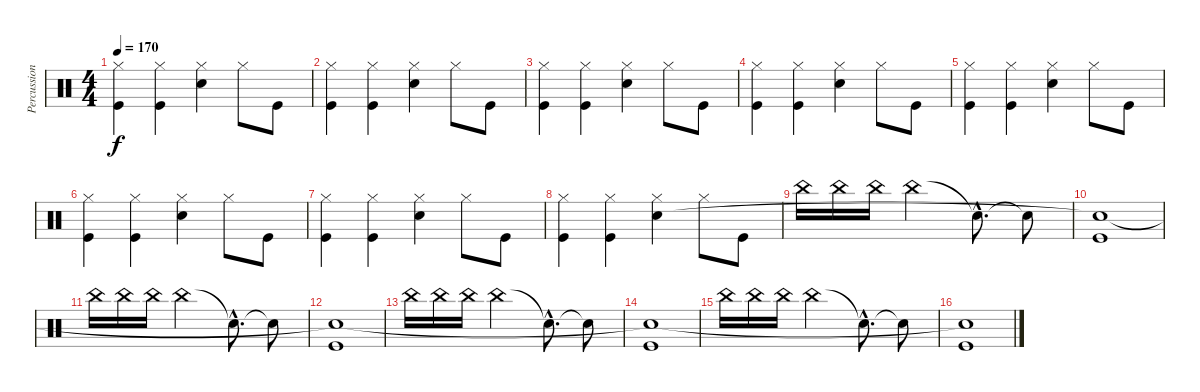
\track ("Percussion" "Percussion") {instrument percussion}
\staff {score}
\articulation defaults
\ts (4 4)
\tempo 170
\clef neutral
\ks c
("Hi-Hat (closed)" "Kick (hit)").4{dy f} ("Hi-Hat (closed)" "Kick (hit)").4 ("Hi-Hat (closed)" "Snare (hit) 2").4 "Hi-Hat (closed)".8 "Kick (hit)".8 |
("Hi-Hat (closed)" "Kick (hit)").4 ("Hi-Hat (closed)" "Kick (hit)").4 ("Hi-Hat (closed)" "Snare (hit) 2").4 "Hi-Hat (closed)".8 "Kick (hit)".8 |
("Hi-Hat (closed)" "Kick (hit)").4 ("Hi-Hat (closed)" "Kick (hit)").4 ("Hi-Hat (closed)" "Snare (hit) 2").4 "Hi-Hat (closed)".8 "Kick (hit)".8 |
("Hi-Hat (closed)" "Kick (hit)").4 ("Hi-Hat (closed)" "Kick (hit)").4 ("Hi-Hat (closed)" "Snare (hit) 2").4 "Hi-Hat (closed)".8 "Kick (hit)".8 |
("Hi-Hat (closed)" "Kick (hit)").4 ("Hi-Hat (closed)" "Kick (hit)").4 ("Hi-Hat (closed)" "Snare (hit) 2").4 "Hi-Hat (closed)".8 "Kick (hit)".8 |
("Hi-Hat (closed)" "Kick (hit)").4 ("Hi-Hat (closed)" "Kick (hit)").4 ("Hi-Hat (closed)" "Snare (hit) 2").4 "Hi-Hat (closed)".8 "Kick (hit)".8 |
("Hi-Hat (closed)" "Kick (hit)").4 ("Hi-Hat (closed)" "Kick (hit)").4 ("Hi-Hat (closed)" "Snare (hit) 2").4 "Hi-Hat (closed)".8 "Kick (hit)".8 |
("Hi-Hat (closed)" "Kick (hit)").4 ("Hi-Hat (closed)" "Kick (hit)").4 ("Hi-Hat (closed)" "Snare (hit) 2").4 "Hi-Hat (closed)".8 "Kick (hit)".8 |
"China (hit)".16 "China (hit)".16 "China (hit)".16 "China (hit)".2 "Snare (hit)"{hac t}.8{d} "Snare (hit)"{t}.8 |
("Kick (hit)" "Snare (hit)"{t}).1 |
"China (hit)".16 "China (hit)".16 "China (hit)".16 "China (hit)".2 "Snare (hit)"{hac t}.8{d} "Snare (hit)"{t}.8 |
("Kick (hit)" "Snare (hit)"{t}).1 |
"China (hit)".16 "China (hit)".16 "China (hit)".16 "China (hit)".2 "Snare (hit)"{hac t}.8{d} "Snare (hit)"{t}.8 |
("Kick (hit)" "Snare (hit)"{t}).1 |
"China (hit)".16 "China (hit)".16 "China (hit)".16 "China (hit)".2 "Snare (hit)"{hac t}.8{d} "Snare (hit)"{t}.8 |
("Kick (hit)" "Snare (hit)"{t}).1
